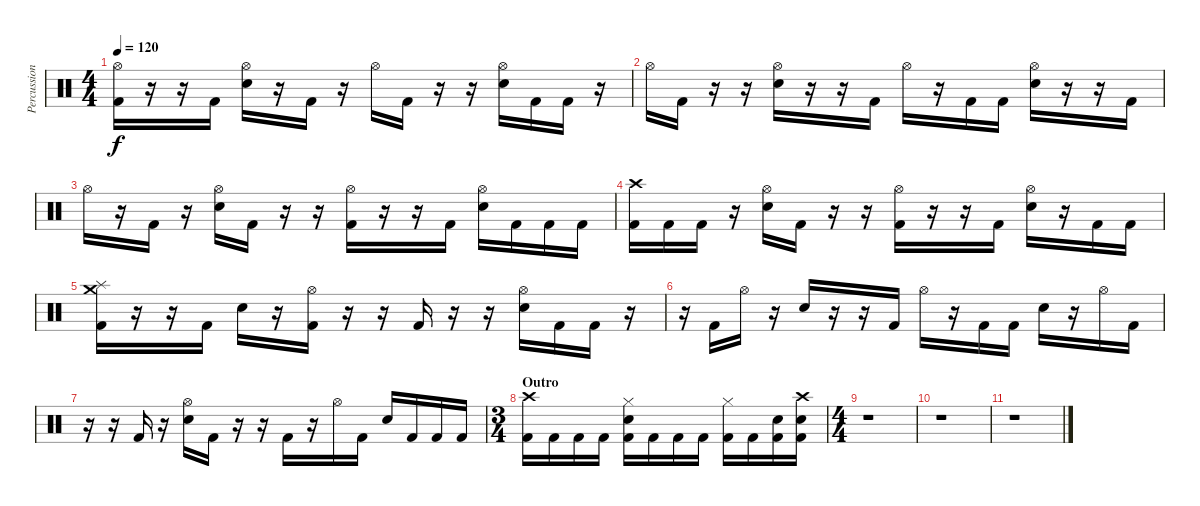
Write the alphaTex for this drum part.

\track ("Percussion" "Percussion") {instrument percussion}
\staff {score}
\articulation defaults
\ts (4 4)
\tempo 120
\clef neutral
\ks c
("Hi-Hat (open)" "Kick (hit) 2").16{dy f} r.16 r.16 "Kick (hit) 2".16 ("Hi-Hat (open)" "Electric Snare (hit)").16 r.16 "Kick (hit) 2".16 r.16 "Hi-Hat (open)".16 "Kick (hit) 2".16 r.16 r.16 ("Hi-Hat (open)" "Electric Snare (hit)").16 "Kick (hit) 2".16 "Kick (hit) 2".16 r.16 |
"Hi-Hat (open)".16 "Kick (hit) 2".16 r.16 r.16 ("Hi-Hat (open)" "Electric Snare (hit)").16 r.16 r.16 "Kick (hit) 2".16 "Hi-Hat (open)".16 r.16 "Kick (hit) 2".16 "Kick (hit) 2".16 ("Hi-Hat (open)" "Electric Snare (hit)").16 r.16 r.16 "Kick (hit) 2".16 |
"Hi-Hat (open)".16 r.16 "Kick (hit) 2".16 r.16 ("Hi-Hat (open)" "Electric Snare (hit)").16 "Kick (hit) 2".16 r.16 r.16 ("Hi-Hat (open)" "Kick (hit) 2").16 r.16 r.16 "Kick (hit) 2".16 ("Hi-Hat (open)" "Electric Snare (hit)").16 "Kick (hit) 2".16 "Kick (hit) 2".16 "Kick (hit) 2".16 |
("Crash high (hit)" "Kick (hit) 2").16 "Kick (hit) 2".16 "Kick (hit) 2".16 r.16 ("Hi-Hat (open)" "Electric Snare (hit)").16 "Kick (hit) 2".16 r.16 r.16 ("Hi-Hat (open)" "Kick (hit) 2").16 r.16 r.16 "Kick (hit) 2".16 ("Hi-Hat (open)" "Electric Snare (hit)").16 r.16 "Kick (hit) 2".16 "Kick (hit) 2".16 |
("Splash (hit)" "Crash medium (hit)" "Kick (hit) 2").16 r.16 r.16 "Kick (hit) 2".16 "Electric Snare (hit)".16 r.16 ("Hi-Hat (open)" "Kick (hit) 2").16 r.16 r.16 "Kick (hit) 2".16 r.16 r.16 ("Hi-Hat (open)" "Electric Snare (hit)").16 "Kick (hit) 2".16 "Kick (hit) 2".16 r.16 |
r.16 "Kick (hit) 2".16 "Hi-Hat (open)".16 r.16 "Electric Snare (hit)".16 r.16 r.16 "Kick (hit) 2".16 "Hi-Hat (open)".16 r.16 "Kick (hit) 2".16 "Kick (hit) 2".16 "Electric Snare (hit)".16 r.16 "Hi-Hat (open)".16 "Kick (hit) 2".16 |
r.16 r.16 "Kick (hit) 2".16 r.16 ("Hi-Hat (open)" "Electric Snare (hit)").16 "Kick (hit) 2".16 r.16 r.16 "Kick (hit) 2".16 r.16 "Hi-Hat (open)".16 "Kick (hit) 2".16 "Electric Snare (hit)".16 "Kick (hit) 2".16 "Kick (hit) 2".16 "Kick (hit) 2".16 |
\ts (3 4)
\section ("" "Outro")
("Crash high (hit)" "Kick (hit) 2").16 "Kick (hit) 2".16 "Kick (hit) 2".16 "Kick (hit) 2".16 ("Hi-Hat (closed)" "Electric Snare (hit)" "Kick (hit) 2").16 "Kick (hit) 2".16 "Kick (hit) 2".16 "Kick (hit) 2".16 ("Hi-Hat (closed)" "Kick (hit) 2").16 "Kick (hit) 2".16 ("Electric Snare (hit)" "Kick (hit) 2").16 ("Crash high (hit)" "Electric Snare (hit)" "Kick (hit) 2").16 |
\ts (4 4)
r.1 |
r.1 |
r.1
